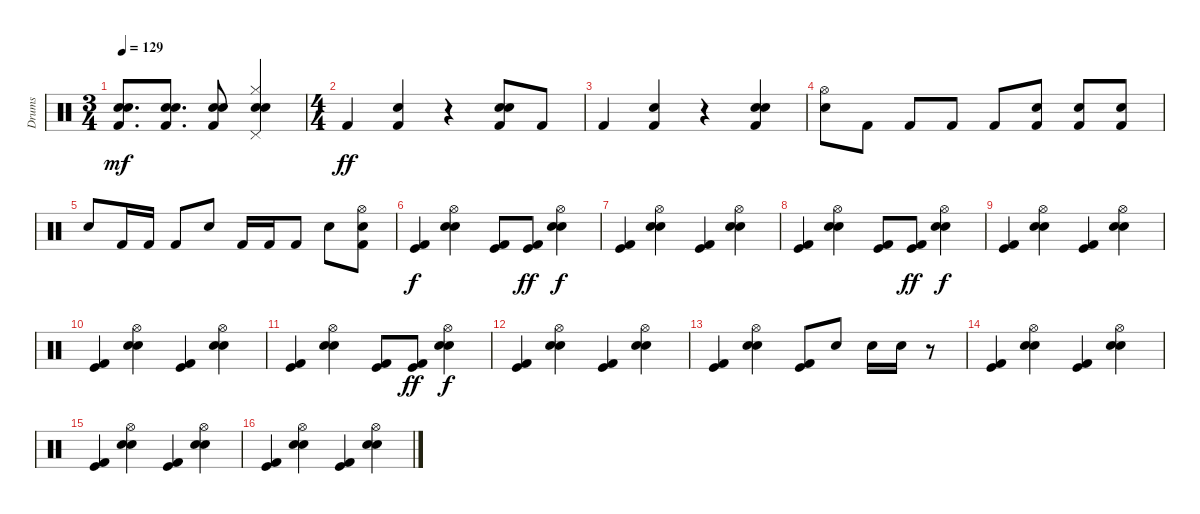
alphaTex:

\track ("Drums" "Drums") {instrument percussion}
\staff {score}
\articulation defaults
\ts (3 4)
\tempo 129
\clef neutral
\ks c
("Kick (hit) 2" "Snare (hit) 2" "Electric Snare (hit)").8{d dy mf} ("Kick (hit) 2" "Snare (hit) 2" "Electric Snare (hit)").8{d} ("Kick (hit) 2" "Snare (hit) 2" "Electric Snare (hit)").8 ("Electric Snare (hit)" "Snare (hit) 2" "Hi-Hat (closed)" "Pedal Hi-Hat (hit)").4 |
\ts (4 4)
"Kick (hit) 2".4{dy ff} ("Snare (hit) 2" "Kick (hit) 2").4 r.4 ("Electric Snare (hit)" "Kick (hit) 2" "Snare (hit) 2").8 "Kick (hit) 2".8 |
"Kick (hit) 2".4 ("Kick (hit) 2" "Snare (hit) 2").4 r.4 ("Electric Snare (hit)" "Snare (hit) 2" "Kick (hit) 2").4 |
("Hi-Hat (open)" "Snare (hit) 2").8 "Kick (hit) 2".8 "Kick (hit) 2".8 "Kick (hit) 2".8 "Kick (hit) 2".8 ("Snare (hit) 2" "Kick (hit) 2").8 ("Snare (hit) 2" "Kick (hit) 2").8 ("Snare (hit) 2" "Kick (hit) 2").8 |
"Snare (hit) 2".8 "Kick (hit) 2".16 "Kick (hit) 2".16 "Kick (hit) 2".8 "Snare (hit) 2".8 "Kick (hit) 2".16 "Kick (hit) 2".16 "Kick (hit) 2".8 "Snare (hit) 2".8 ("Hi-Hat (open)" "Snare (hit) 2" "Kick (hit) 2").8 |
("Kick (hit)" "Kick (hit) 2").4{dy f} ("Electric Snare (hit)" "Hi-Hat (open)" "Snare (hit) 2").4 ("Kick (hit)" "Kick (hit) 2").8 ("Kick (hit) 2" "Kick (hit)").8{dy ff} ("Electric Snare (hit)" "Hi-Hat (open)" "Snare (hit) 2").4{dy f} |
("Kick (hit)" "Kick (hit) 2").4 ("Electric Snare (hit)" "Hi-Hat (open)" "Snare (hit) 2").4 ("Kick (hit)" "Kick (hit) 2").4 ("Electric Snare (hit)" "Hi-Hat (open)" "Snare (hit) 2").4 |
("Kick (hit)" "Kick (hit) 2").4 ("Electric Snare (hit)" "Hi-Hat (open)" "Snare (hit) 2").4 ("Kick (hit)" "Kick (hit) 2").8 ("Kick (hit) 2" "Kick (hit)").8{dy ff} ("Electric Snare (hit)" "Hi-Hat (open)" "Snare (hit) 2").4{dy f} |
("Kick (hit)" "Kick (hit) 2").4 ("Electric Snare (hit)" "Hi-Hat (open)" "Snare (hit) 2").4 ("Kick (hit)" "Kick (hit) 2").4 ("Electric Snare (hit)" "Hi-Hat (open)" "Snare (hit) 2").4 |
("Kick (hit)" "Kick (hit) 2").4 ("Electric Snare (hit)" "Hi-Hat (open)" "Snare (hit) 2").4 ("Kick (hit)" "Kick (hit) 2").4 ("Electric Snare (hit)" "Hi-Hat (open)" "Snare (hit) 2").4 |
("Kick (hit)" "Kick (hit) 2").4 ("Electric Snare (hit)" "Hi-Hat (open)" "Snare (hit) 2").4 ("Kick (hit)" "Kick (hit) 2").8 ("Kick (hit) 2" "Kick (hit)").8{dy ff} ("Electric Snare (hit)" "Hi-Hat (open)" "Snare (hit) 2").4{dy f} |
("Kick (hit)" "Kick (hit) 2").4 ("Electric Snare (hit)" "Hi-Hat (open)" "Snare (hit) 2").4 ("Kick (hit)" "Kick (hit) 2").4 ("Electric Snare (hit)" "Hi-Hat (open)" "Snare (hit) 2").4 |
("Kick (hit)" "Kick (hit) 2").4 ("Electric Snare (hit)" "Hi-Hat (open)" "Snare (hit) 2").4 ("Kick (hit)" "Kick (hit) 2").8 "Snare (hit) 2".8 "Snare (hit) 2".16 "Snare (hit) 2".16 r.8 |
("Kick (hit)" "Kick (hit) 2").4 ("Electric Snare (hit)" "Hi-Hat (open)" "Snare (hit) 2").4 ("Kick (hit)" "Kick (hit) 2").4 ("Electric Snare (hit)" "Hi-Hat (open)" "Snare (hit) 2").4 |
("Kick (hit)" "Kick (hit) 2").4 ("Electric Snare (hit)" "Hi-Hat (open)" "Snare (hit) 2").4 ("Kick (hit)" "Kick (hit) 2").4 ("Electric Snare (hit)" "Hi-Hat (open)" "Snare (hit) 2").4 |
("Kick (hit)" "Kick (hit) 2").4 ("Electric Snare (hit)" "Hi-Hat (open)" "Snare (hit) 2").4 ("Kick (hit)" "Kick (hit) 2").4 ("Electric Snare (hit)" "Hi-Hat (open)" "Snare (hit) 2").4
